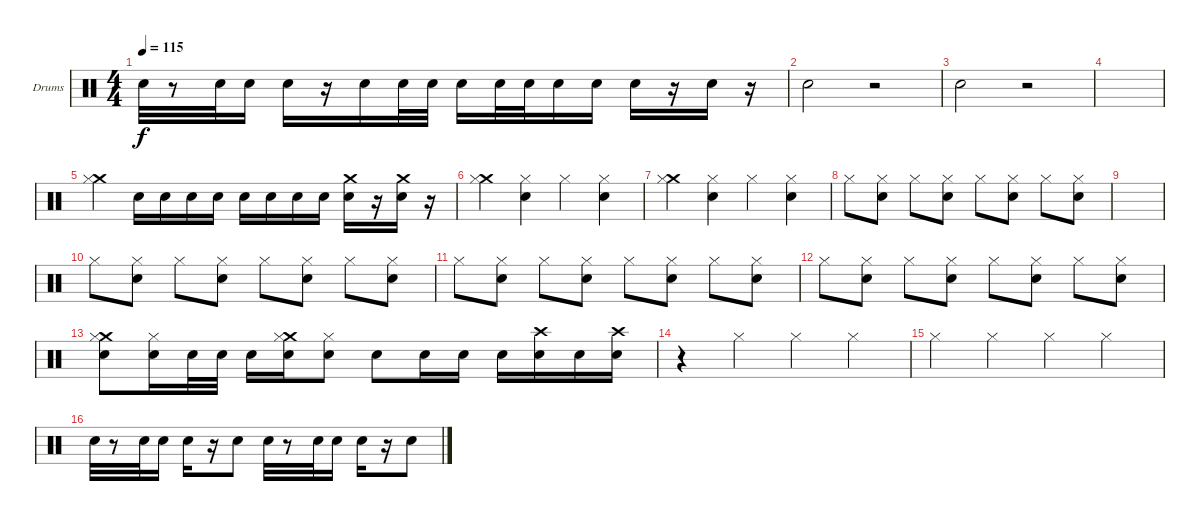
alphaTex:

\bracketExtendMode groupsimilarinstruments
\firstSystemTrackNameOrientation horizontal
\otherSystemsTrackNameOrientation horizontal
\track ("Drumkit" "Drums") {instrument percussion}
\staff {score}
\articulation defaults
\ts (4 4)
\tempo 115
\clef neutral
\ks c "Snare (hit) 2".32{dy f}
r.8 "Snare (hit) 2".32 "Snare (hit) 2".16 "Snare (hit) 2".16 r.16 "Snare (hit) 2".16 "Snare (hit) 2".32 "Snare (hit) 2".32 "Snare (hit) 2".16 "Snare (hit) 2".32 "Snare (hit) 2".32 "Snare (hit) 2".16 "Snare (hit) 2".16 "Snare (hit) 2".16 r.16 "Snare (hit) 2".16 r.16 |
"Snare (hit) 2".2 r.2 |
"Snare (hit) 2".2 r.2 |
|
("Crash medium (hit)" "Hi-Hat (closed)").4 "Snare (hit) 2".16 "Snare (hit) 2".16 "Snare (hit) 2".16 "Snare (hit) 2".16 "Snare (hit) 2".16 "Snare (hit) 2".16 "Snare (hit) 2".16 "Snare (hit) 2".16 ("Snare (hit) 2" "Crash medium (hit)").16 r.16 ("Snare (hit) 2" "Crash medium (hit)").16 r.16 |
("Crash medium (hit)" "Hi-Hat (closed)").4 ("Hi-Hat (closed)" "Snare (hit) 2").4 "Hi-Hat (closed)".4 ("Hi-Hat (closed)" "Snare (hit) 2").4 |
("Crash medium (hit)" "Hi-Hat (closed)").4 ("Hi-Hat (closed)" "Snare (hit) 2").4 "Hi-Hat (closed)".4 ("Hi-Hat (closed)" "Snare (hit) 2").4 |
"Hi-Hat (closed)".8 ("Hi-Hat (closed)" "Snare (hit) 2").8 "Hi-Hat (closed)".8 ("Hi-Hat (closed)" "Snare (hit) 2").8 "Hi-Hat (closed)".8 ("Hi-Hat (closed)" "Snare (hit) 2").8 "Hi-Hat (closed)".8 ("Hi-Hat (closed)" "Snare (hit) 2").8 |
|
"Hi-Hat (closed)".8 ("Hi-Hat (closed)" "Snare (hit) 2").8 "Hi-Hat (closed)".8 ("Hi-Hat (closed)" "Snare (hit) 2").8 "Hi-Hat (closed)".8 ("Hi-Hat (closed)" "Snare (hit) 2").8 "Hi-Hat (closed)".8 ("Hi-Hat (closed)" "Snare (hit) 2").8 |
"Hi-Hat (closed)".8 ("Hi-Hat (closed)" "Snare (hit) 2").8 "Hi-Hat (closed)".8 ("Hi-Hat (closed)" "Snare (hit) 2").8 "Hi-Hat (closed)".8 ("Hi-Hat (closed)" "Snare (hit) 2").8 "Hi-Hat (closed)".8 ("Hi-Hat (closed)" "Snare (hit) 2").8 |
"Hi-Hat (closed)".8 ("Hi-Hat (closed)" "Snare (hit) 2").8 "Hi-Hat (closed)".8 ("Hi-Hat (closed)" "Snare (hit) 2").8 "Hi-Hat (closed)".8 ("Hi-Hat (closed)" "Snare (hit) 2").8 "Hi-Hat (closed)".8 ("Hi-Hat (closed)" "Snare (hit) 2").8 |
("Crash medium (hit)" "Hi-Hat (closed)" "Snare (hit) 2").8 ("Hi-Hat (closed)" "Snare (hit) 2").16 "Snare (hit) 2".32 "Snare (hit) 2".32 "Snare (hit) 2".16 ("Crash medium (hit)" "Hi-Hat (closed)" "Snare (hit) 2").16 ("Hi-Hat (closed)" "Snare (hit) 2").8 "Snare (hit) 2".8 "Snare (hit) 2".16 "Snare (hit) 2".16 "Snare (hit) 2".16 ("Snare (hit) 2" "Crash high (hit)").16 "Snare (hit) 2".16 ("Snare (hit) 2" "Crash high (hit)").16 |
r.4 "Hi-Hat (closed)".4 "Hi-Hat (closed)".4 "Hi-Hat (closed)".4 |
"Hi-Hat (closed)".4 "Hi-Hat (closed)".4 "Hi-Hat (closed)".4 "Hi-Hat (closed)".4 |
"Snare (hit) 2".32 r.8 "Snare (hit) 2".32 "Snare (hit) 2".16 "Snare (hit) 2".16 r.16 "Snare (hit) 2".8 "Snare (hit) 2".32 r.8 "Snare (hit) 2".32 "Snare (hit) 2".16 "Snare (hit) 2".16 r.16 "Snare (hit) 2".8
